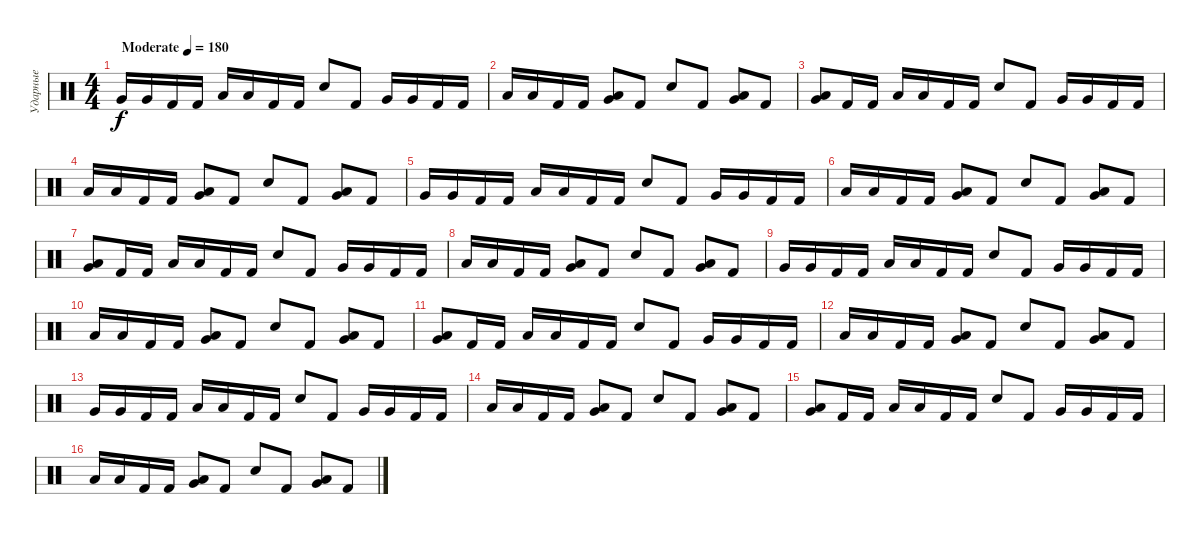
\track ("Ударные" "Ударные") {instrument percussion bank 127}
\staff {score}
\articulation defaults
\ts (4 4)
\tempo (180 "Moderate")
\clef neutral
\ks c "Very Low Tom (hit)".16{dy f} "Very Low Tom (hit)".16 "Kick (hit) 2".16 "Kick (hit) 2".16 "Low Floor Tom (hit)".16 "Low Floor Tom (hit)".16 "Kick (hit) 2".16 "Kick (hit) 2".16 "Snare (hit) 2".8 "Kick (hit) 2".8 "Very Low Tom (hit)".16 "Very Low Tom (hit)".16 "Kick (hit) 2".16 "Kick (hit) 2".16
|
"Low Floor Tom (hit)".16 "Low Floor Tom (hit)".16 "Kick (hit) 2".16 "Kick (hit) 2".16 ("Very Low Tom (hit)" "Low Floor Tom (hit)").8 "Kick (hit) 2".8 "Snare (hit) 2".8 "Kick (hit) 2".8 ("Low Floor Tom (hit)" "Very Low Tom (hit)").8 "Kick (hit) 2".8 |
("Low Floor Tom (hit)" "Very Low Tom (hit)").8 "Kick (hit) 2".16 "Kick (hit) 2".16 "Low Floor Tom (hit)".16 "Low Floor Tom (hit)".16 "Kick (hit) 2".16 "Kick (hit) 2".16 "Snare (hit) 2".8 "Kick (hit) 2".8 "Very Low Tom (hit)".16 "Very Low Tom (hit)".16 "Kick (hit) 2".16 "Kick (hit) 2".16 |
"Low Floor Tom (hit)".16 "Low Floor Tom (hit)".16 "Kick (hit) 2".16 "Kick (hit) 2".16 ("Very Low Tom (hit)" "Low Floor Tom (hit)").8 "Kick (hit) 2".8 "Snare (hit) 2".8 "Kick (hit) 2".8 ("Low Floor Tom (hit)" "Very Low Tom (hit)").8 "Kick (hit) 2".8 |
"Very Low Tom (hit)".16 "Very Low Tom (hit)".16 "Kick (hit) 2".16 "Kick (hit) 2".16 "Low Floor Tom (hit)".16 "Low Floor Tom (hit)".16 "Kick (hit) 2".16 "Kick (hit) 2".16 "Snare (hit) 2".8 "Kick (hit) 2".8 "Very Low Tom (hit)".16 "Very Low Tom (hit)".16 "Kick (hit) 2".16 "Kick (hit) 2".16 |
"Low Floor Tom (hit)".16 "Low Floor Tom (hit)".16 "Kick (hit) 2".16 "Kick (hit) 2".16 ("Very Low Tom (hit)" "Low Floor Tom (hit)").8 "Kick (hit) 2".8 "Snare (hit) 2".8 "Kick (hit) 2".8 ("Low Floor Tom (hit)" "Very Low Tom (hit)").8 "Kick (hit) 2".8 |
("Low Floor Tom (hit)" "Very Low Tom (hit)").8 "Kick (hit) 2".16 "Kick (hit) 2".16 "Low Floor Tom (hit)".16 "Low Floor Tom (hit)".16 "Kick (hit) 2".16 "Kick (hit) 2".16 "Snare (hit) 2".8 "Kick (hit) 2".8 "Very Low Tom (hit)".16 "Very Low Tom (hit)".16 "Kick (hit) 2".16 "Kick (hit) 2".16 |
"Low Floor Tom (hit)".16 "Low Floor Tom (hit)".16 "Kick (hit) 2".16 "Kick (hit) 2".16 ("Very Low Tom (hit)" "Low Floor Tom (hit)").8 "Kick (hit) 2".8 "Snare (hit) 2".8 "Kick (hit) 2".8 ("Low Floor Tom (hit)" "Very Low Tom (hit)").8 "Kick (hit) 2".8 |
"Very Low Tom (hit)".16 "Very Low Tom (hit)".16 "Kick (hit) 2".16 "Kick (hit) 2".16 "Low Floor Tom (hit)".16 "Low Floor Tom (hit)".16 "Kick (hit) 2".16 "Kick (hit) 2".16 "Snare (hit) 2".8 "Kick (hit) 2".8 "Very Low Tom (hit)".16 "Very Low Tom (hit)".16 "Kick (hit) 2".16 "Kick (hit) 2".16 |
"Low Floor Tom (hit)".16 "Low Floor Tom (hit)".16 "Kick (hit) 2".16 "Kick (hit) 2".16 ("Very Low Tom (hit)" "Low Floor Tom (hit)").8 "Kick (hit) 2".8 "Snare (hit) 2".8 "Kick (hit) 2".8 ("Low Floor Tom (hit)" "Very Low Tom (hit)").8 "Kick (hit) 2".8 |
("Low Floor Tom (hit)" "Very Low Tom (hit)").8 "Kick (hit) 2".16 "Kick (hit) 2".16 "Low Floor Tom (hit)".16 "Low Floor Tom (hit)".16 "Kick (hit) 2".16 "Kick (hit) 2".16 "Snare (hit) 2".8 "Kick (hit) 2".8 "Very Low Tom (hit)".16 "Very Low Tom (hit)".16 "Kick (hit) 2".16 "Kick (hit) 2".16 |
"Low Floor Tom (hit)".16 "Low Floor Tom (hit)".16 "Kick (hit) 2".16 "Kick (hit) 2".16 ("Very Low Tom (hit)" "Low Floor Tom (hit)").8 "Kick (hit) 2".8 "Snare (hit) 2".8 "Kick (hit) 2".8 ("Low Floor Tom (hit)" "Very Low Tom (hit)").8 "Kick (hit) 2".8 |
"Very Low Tom (hit)".16 "Very Low Tom (hit)".16 "Kick (hit) 2".16 "Kick (hit) 2".16 "Low Floor Tom (hit)".16 "Low Floor Tom (hit)".16 "Kick (hit) 2".16 "Kick (hit) 2".16 "Snare (hit) 2".8 "Kick (hit) 2".8 "Very Low Tom (hit)".16 "Very Low Tom (hit)".16 "Kick (hit) 2".16 "Kick (hit) 2".16 |
"Low Floor Tom (hit)".16 "Low Floor Tom (hit)".16 "Kick (hit) 2".16 "Kick (hit) 2".16 ("Very Low Tom (hit)" "Low Floor Tom (hit)").8 "Kick (hit) 2".8 "Snare (hit) 2".8 "Kick (hit) 2".8 ("Low Floor Tom (hit)" "Very Low Tom (hit)").8 "Kick (hit) 2".8 |
("Low Floor Tom (hit)" "Very Low Tom (hit)").8 "Kick (hit) 2".16 "Kick (hit) 2".16 "Low Floor Tom (hit)".16 "Low Floor Tom (hit)".16 "Kick (hit) 2".16 "Kick (hit) 2".16 "Snare (hit) 2".8 "Kick (hit) 2".8 "Very Low Tom (hit)".16 "Very Low Tom (hit)".16 "Kick (hit) 2".16 "Kick (hit) 2".16 |
"Low Floor Tom (hit)".16 "Low Floor Tom (hit)".16 "Kick (hit) 2".16 "Kick (hit) 2".16 ("Very Low Tom (hit)" "Low Floor Tom (hit)").8 "Kick (hit) 2".8 "Snare (hit) 2".8 "Kick (hit) 2".8 ("Low Floor Tom (hit)" "Very Low Tom (hit)").8 "Kick (hit) 2".8
